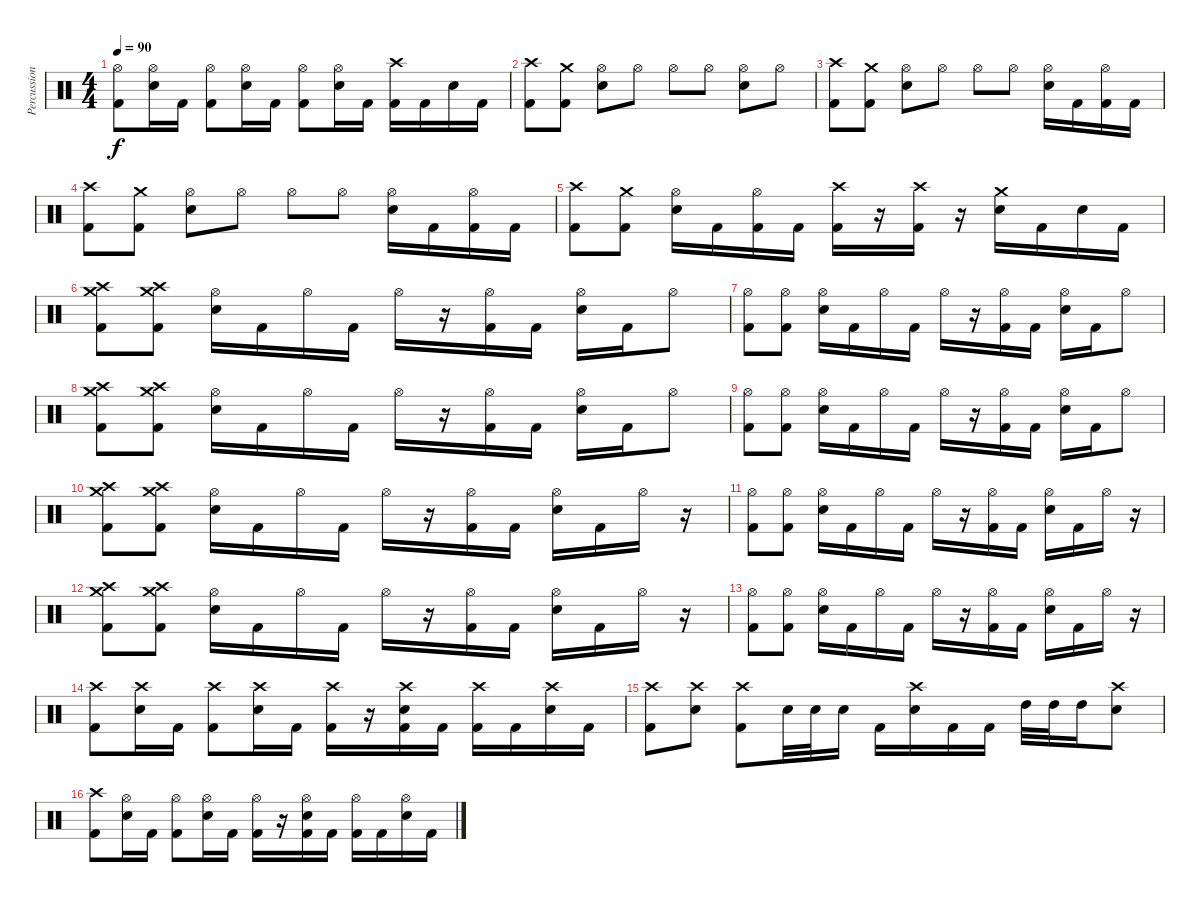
\track ("Percussion" "Percussion") {instrument percussion}
\staff {score}
\articulation defaults
\ts (4 4)
\tempo 90
\clef neutral
\ks c
("Hi-Hat (open)" "Kick (hit) 2").8{dy f} ("Hi-Hat (open)" "Electric Snare (hit)").16 "Kick (hit) 2".16 ("Hi-Hat (open)" "Kick (hit) 2").8 ("Hi-Hat (open)" "Electric Snare (hit)").16 "Kick (hit) 2".16 ("Hi-Hat (open)" "Kick (hit) 2").8 ("Hi-Hat (open)" "Electric Snare (hit)").16 "Kick (hit) 2".16 ("Crash high (hit)" "Kick (hit) 2").16 "Kick (hit) 2".16 "Electric Snare (hit)".16 "Kick (hit) 2".16 |
("Crash high (hit)" "Kick (hit) 2").8 ("Crash medium (hit)" "Kick (hit) 2").8 ("Hi-Hat (open)" "Electric Snare (hit)").8 "Hi-Hat (open)".8 "Hi-Hat (open)".8 "Hi-Hat (open)".8 ("Hi-Hat (open)" "Electric Snare (hit)").8 "Hi-Hat (open)".8 |
("Crash high (hit)" "Kick (hit) 2").8 ("Crash medium (hit)" "Kick (hit) 2").8 ("Hi-Hat (open)" "Electric Snare (hit)").8 "Hi-Hat (open)".8 "Hi-Hat (open)".8 "Hi-Hat (open)".8 ("Hi-Hat (open)" "Electric Snare (hit)").16 "Kick (hit) 2".16 ("Hi-Hat (open)" "Kick (hit) 2").16 "Kick (hit) 2".16 |
("Crash high (hit)" "Kick (hit) 2").8 ("Crash medium (hit)" "Kick (hit) 2").8 ("Hi-Hat (open)" "Electric Snare (hit)").8 "Hi-Hat (open)".8 "Hi-Hat (open)".8 "Hi-Hat (open)".8 ("Hi-Hat (open)" "Electric Snare (hit)").16 "Kick (hit) 2".16 ("Hi-Hat (open)" "Kick (hit) 2").16 "Kick (hit) 2".16 |
("Crash high (hit)" "Kick (hit) 2").8 ("Crash medium (hit)" "Kick (hit) 2").8 ("Hi-Hat (open)" "Electric Snare (hit)").16 "Kick (hit) 2".16 ("Hi-Hat (open)" "Kick (hit) 2").16 "Kick (hit) 2".16 ("Crash high (hit)" "Kick (hit) 2").16 r.16 ("Crash high (hit)" "Kick (hit) 2").16 r.16 ("Crash medium (hit)" "Electric Snare (hit)").16 "Kick (hit) 2".16 "Electric Snare (hit)".16 "Kick (hit) 2".16 |
("Crash high (hit)" "Crash medium (hit)" "Kick (hit) 2").8 ("Crash high (hit)" "Crash medium (hit)" "Kick (hit) 2").8 ("Hi-Hat (open)" "Electric Snare (hit)").16 "Kick (hit) 2".16 "Hi-Hat (open)".16 "Kick (hit) 2".16 "Hi-Hat (open)".16 r.16 ("Hi-Hat (open)" "Kick (hit) 2").16 "Kick (hit) 2".16 ("Hi-Hat (open)" "Electric Snare (hit)").16 "Kick (hit) 2".16 "Hi-Hat (open)".8 |
("Hi-Hat (open)" "Kick (hit) 2").8 ("Hi-Hat (open)" "Kick (hit) 2").8 ("Hi-Hat (open)" "Electric Snare (hit)").16 "Kick (hit) 2".16 "Hi-Hat (open)".16 "Kick (hit) 2".16 "Hi-Hat (open)".16 r.16 ("Hi-Hat (open)" "Kick (hit) 2").16 "Kick (hit) 2".16 ("Hi-Hat (open)" "Electric Snare (hit)").16 "Kick (hit) 2".16 "Hi-Hat (open)".8 |
("Crash high (hit)" "Crash medium (hit)" "Kick (hit) 2").8 ("Crash high (hit)" "Crash medium (hit)" "Kick (hit) 2").8 ("Hi-Hat (open)" "Electric Snare (hit)").16 "Kick (hit) 2".16 "Hi-Hat (open)".16 "Kick (hit) 2".16 "Hi-Hat (open)".16 r.16 ("Hi-Hat (open)" "Kick (hit) 2").16 "Kick (hit) 2".16 ("Hi-Hat (open)" "Electric Snare (hit)").16 "Kick (hit) 2".16 "Hi-Hat (open)".8 |
("Hi-Hat (open)" "Kick (hit) 2").8 ("Hi-Hat (open)" "Kick (hit) 2").8 ("Hi-Hat (open)" "Electric Snare (hit)").16 "Kick (hit) 2".16 "Hi-Hat (open)".16 "Kick (hit) 2".16 "Hi-Hat (open)".16 r.16 ("Hi-Hat (open)" "Kick (hit) 2").16 "Kick (hit) 2".16 ("Hi-Hat (open)" "Electric Snare (hit)").16 "Kick (hit) 2".16 "Hi-Hat (open)".8 |
("Crash high (hit)" "Crash medium (hit)" "Kick (hit) 2").8 ("Crash high (hit)" "Crash medium (hit)" "Kick (hit) 2").8 ("Hi-Hat (open)" "Electric Snare (hit)").16 "Kick (hit) 2".16 "Hi-Hat (open)".16 "Kick (hit) 2".16 "Hi-Hat (open)".16 r.16 ("Hi-Hat (open)" "Kick (hit) 2").16 "Kick (hit) 2".16 ("Hi-Hat (open)" "Electric Snare (hit)").16 "Kick (hit) 2".16 "Hi-Hat (open)".16 r.16 |
("Hi-Hat (open)" "Kick (hit) 2").8 ("Hi-Hat (open)" "Kick (hit) 2").8 ("Hi-Hat (open)" "Electric Snare (hit)").16 "Kick (hit) 2".16 "Hi-Hat (open)".16 "Kick (hit) 2".16 "Hi-Hat (open)".16 r.16 ("Hi-Hat (open)" "Kick (hit) 2").16 "Kick (hit) 2".16 ("Hi-Hat (open)" "Electric Snare (hit)").16 "Kick (hit) 2".16 "Hi-Hat (open)".16 r.16 |
("Crash high (hit)" "Crash medium (hit)" "Kick (hit) 2").8 ("Crash high (hit)" "Crash medium (hit)" "Kick (hit) 2").8 ("Hi-Hat (open)" "Electric Snare (hit)").16 "Kick (hit) 2".16 "Hi-Hat (open)".16 "Kick (hit) 2".16 "Hi-Hat (open)".16 r.16 ("Hi-Hat (open)" "Kick (hit) 2").16 "Kick (hit) 2".16 ("Hi-Hat (open)" "Electric Snare (hit)").16 "Kick (hit) 2".16 "Hi-Hat (open)".16 r.16 |
("Hi-Hat (open)" "Kick (hit) 2").8 ("Hi-Hat (open)" "Kick (hit) 2").8 ("Hi-Hat (open)" "Electric Snare (hit)").16 "Kick (hit) 2".16 "Hi-Hat (open)".16 "Kick (hit) 2".16 "Hi-Hat (open)".16 r.16 ("Hi-Hat (open)" "Kick (hit) 2").16 "Kick (hit) 2".16 ("Hi-Hat (open)" "Electric Snare (hit)").16 "Kick (hit) 2".16 "Hi-Hat (open)".16 r.16 |
("Crash high (hit)" "Kick (hit) 2").8 ("Crash high (hit)" "Electric Snare (hit)").16 "Kick (hit) 2".16 ("Crash high (hit)" "Kick (hit) 2").8 ("Crash high (hit)" "Electric Snare (hit)").16 "Kick (hit) 2".16 ("Crash high (hit)" "Kick (hit) 2").16 r.16 ("Crash high (hit)" "Electric Snare (hit)" "Kick (hit) 2").16 "Kick (hit) 2".16 ("Crash high (hit)" "Kick (hit) 2").16 "Kick (hit) 2".16 ("Crash high (hit)" "Electric Snare (hit)").16 "Kick (hit) 2".16 |
("Crash high (hit)" "Kick (hit) 2").8 ("Crash high (hit)" "Electric Snare (hit)").8 ("Crash high (hit)" "Kick (hit) 2").8 "Electric Snare (hit)".32 "Electric Snare (hit)".32 "Electric Snare (hit)".16 "Kick (hit) 2".16 ("Electric Snare (hit)" "Crash high (hit)").16 "Kick (hit) 2".16 "Kick (hit) 2".16 "High Tom (hit)".32 "High Tom (hit)".32 "High Tom (hit)".16 ("Electric Snare (hit)" "Crash high (hit)").8 |
("Crash high (hit)" "Kick (hit) 2").8 ("Hi-Hat (open)" "Electric Snare (hit)").16 "Kick (hit) 2".16 ("Hi-Hat (open)" "Kick (hit) 2").8 ("Hi-Hat (open)" "Electric Snare (hit)").16 "Kick (hit) 2".16 ("Hi-Hat (open)" "Kick (hit) 2").16 r.16 ("Hi-Hat (open)" "Electric Snare (hit)" "Kick (hit) 2").16 "Kick (hit) 2".16 ("Hi-Hat (open)" "Kick (hit) 2").16 "Kick (hit) 2".16 ("Hi-Hat (open)" "Electric Snare (hit)").16 "Kick (hit) 2".16
